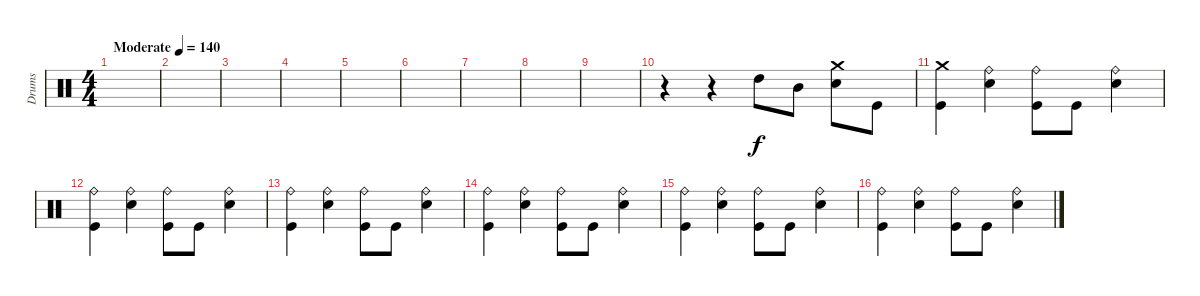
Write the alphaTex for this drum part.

\track ("Drums" "Drums") {instrument percussion}
\staff {score}
\articulation defaults
\ts (4 4)
\tempo (140 "Moderate")
\clef neutral
\ks c
|
|
|
|
|
|
|
|
|
r.4 r.4 "High Tom (hit)".8 "Mid Tom (hit)".8 ("Crash medium (hit)" "Electric Snare (hit)").8 "Kick (hit)".8 |
("Crash medium (hit)" "Kick (hit)").4 ("Ride (bell)" "Electric Snare (hit)").4 ("Ride (bell)" "Kick (hit)").8 "Kick (hit)".8 ("Ride (bell)" "Electric Snare (hit)").4 |
("Ride (bell)" "Kick (hit)").4 ("Ride (bell)" "Electric Snare (hit)").4 ("Ride (bell)" "Kick (hit)").8 "Kick (hit)".8 ("Ride (bell)" "Electric Snare (hit)").4 |
("Ride (bell)" "Kick (hit)").4 ("Ride (bell)" "Electric Snare (hit)").4 ("Ride (bell)" "Kick (hit)").8 "Kick (hit)".8 ("Ride (bell)" "Electric Snare (hit)").4 |
("Ride (bell)" "Kick (hit)").4 ("Ride (bell)" "Electric Snare (hit)").4 ("Ride (bell)" "Kick (hit)").8 "Kick (hit)".8 ("Ride (bell)" "Electric Snare (hit)").4 |
("Ride (bell)" "Kick (hit)").4 ("Ride (bell)" "Electric Snare (hit)").4 ("Ride (bell)" "Kick (hit)").8 "Kick (hit)".8 ("Ride (bell)" "Electric Snare (hit)").4 |
("Ride (bell)" "Kick (hit)").4 ("Ride (bell)" "Electric Snare (hit)").4 ("Ride (bell)" "Kick (hit)").8 "Kick (hit)".8 ("Ride (bell)" "Electric Snare (hit)").4
